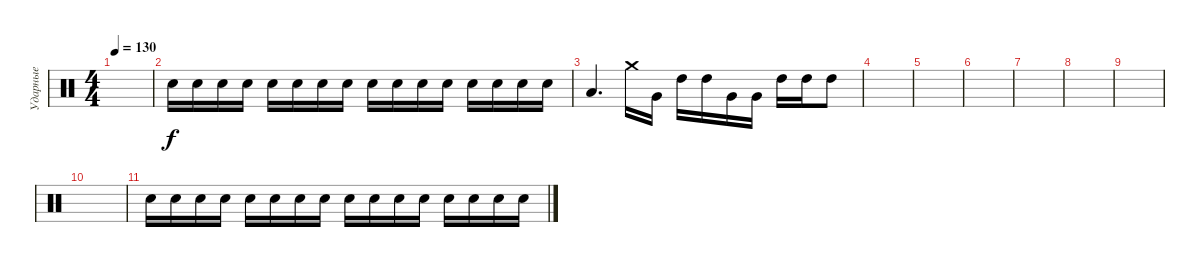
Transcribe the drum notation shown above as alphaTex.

\track ("Ударные" "Ударные") {instrument percussion}
\staff {score}
\articulation defaults
\ts (4 4)
\tempo 130
\clef neutral
\ks c
|
"Electric Snare (hit)".16 "Electric Snare (hit)".16 "Electric Snare (hit)".16 "Electric Snare (hit)".16 "Electric Snare (hit)".16 "Electric Snare (hit)".16 "Electric Snare (hit)".16 "Electric Snare (hit)".16 "Electric Snare (hit)".16 "Electric Snare (hit)".16 "Electric Snare (hit)".16 "Electric Snare (hit)".16 "Electric Snare (hit)".16 "Electric Snare (hit)".16 "Electric Snare (hit)".16 "Electric Snare (hit)".16 |
"Low Floor Tom (hit)".4{d} "Crash medium (hit)".16 "Very Low Tom (hit)".16 "High Tom (hit)".16 "High Tom (hit)".16 "Very Low Tom (hit)".16 "Very Low Tom (hit)".16 "High Tom (hit)".16 "High Tom (hit)".16 "High Tom (hit)".8 |
|
|
|
|
|
|
|
"Electric Snare (hit)".16 "Electric Snare (hit)".16 "Electric Snare (hit)".16 "Electric Snare (hit)".16 "Electric Snare (hit)".16 "Electric Snare (hit)".16 "Electric Snare (hit)".16 "Electric Snare (hit)".16 "Electric Snare (hit)".16 "Electric Snare (hit)".16 "Electric Snare (hit)".16 "Electric Snare (hit)".16 "Electric Snare (hit)".16 "Electric Snare (hit)".16 "Electric Snare (hit)".16 "Electric Snare (hit)".16
